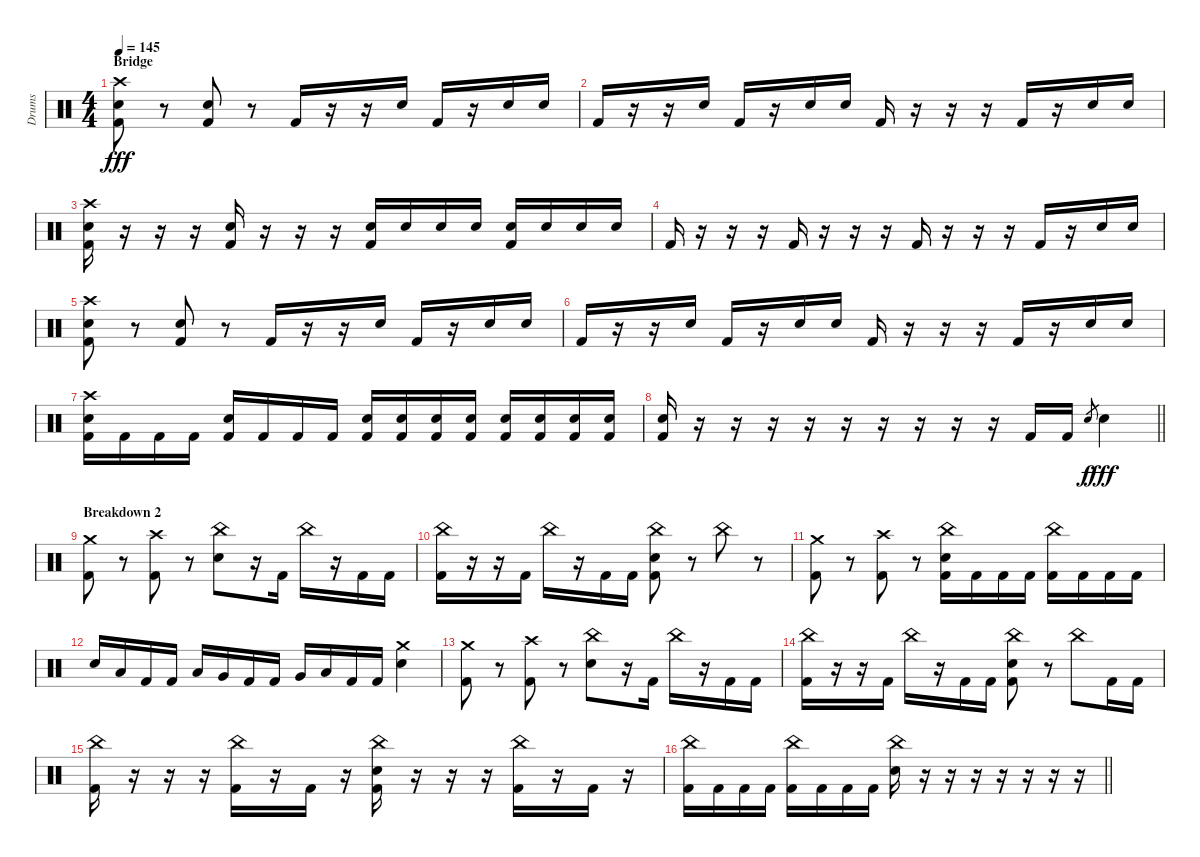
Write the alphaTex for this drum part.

\track ("Drums" "Drums") {instrument percussion}
\staff {score}
\articulation defaults
\ts (4 4)
\section ("" "Bridge")
\tempo 145
\clef neutral
\ks c
("Crash high (hit)" "Electric Snare (hit)" "Kick (hit) 2").8{dy fff} r.8 ("Electric Snare (hit)" "Kick (hit) 2").8 r.8 "Kick (hit) 2".16 r.16 r.16 "Electric Snare (hit)".16 "Kick (hit) 2".16 r.16 "Electric Snare (hit)".16 "Electric Snare (hit)".16 |
"Kick (hit) 2".16 r.16 r.16 "Electric Snare (hit)".16 "Kick (hit) 2".16 r.16 "Electric Snare (hit)".16 "Electric Snare (hit)".16 "Kick (hit) 2".16 r.16 r.16 r.16 "Kick (hit) 2".16 r.16 "Electric Snare (hit)".16 "Electric Snare (hit)".16 |
("Crash high (hit)" "Electric Snare (hit)" "Kick (hit) 2").16 r.16 r.16 r.16 ("Electric Snare (hit)" "Kick (hit) 2").16 r.16 r.16 r.16 ("Electric Snare (hit)" "Kick (hit) 2").16 "Electric Snare (hit)".16 "Electric Snare (hit)".16 "Electric Snare (hit)".16 ("Electric Snare (hit)" "Kick (hit) 2").16 "Electric Snare (hit)".16 "Electric Snare (hit)".16 "Electric Snare (hit)".16 |
"Kick (hit) 2".16 r.16 r.16 r.16 "Kick (hit) 2".16 r.16 r.16 r.16 "Kick (hit) 2".16 r.16 r.16 r.16 "Kick (hit) 2".16 r.16 "Electric Snare (hit)".16 "Electric Snare (hit)".16 |
("Crash high (hit)" "Electric Snare (hit)" "Kick (hit) 2").8 r.8 ("Electric Snare (hit)" "Kick (hit) 2").8 r.8 "Kick (hit) 2".16 r.16 r.16 "Electric Snare (hit)".16 "Kick (hit) 2".16 r.16 "Electric Snare (hit)".16 "Electric Snare (hit)".16 |
"Kick (hit) 2".16 r.16 r.16 "Electric Snare (hit)".16 "Kick (hit) 2".16 r.16 "Electric Snare (hit)".16 "Electric Snare (hit)".16 "Kick (hit) 2".16 r.16 r.16 r.16 "Kick (hit) 2".16 r.16 "Electric Snare (hit)".16 "Electric Snare (hit)".16 |
("Crash high (hit)" "Electric Snare (hit)" "Kick (hit) 2").16 "Kick (hit) 2".16 "Kick (hit) 2".16 "Kick (hit) 2".16 ("Electric Snare (hit)" "Kick (hit) 2").16 "Kick (hit) 2".16 "Kick (hit) 2".16 "Kick (hit) 2".16 ("Electric Snare (hit)" "Kick (hit) 2").16 ("Electric Snare (hit)" "Kick (hit) 2").16 ("Electric Snare (hit)" "Kick (hit) 2").16 ("Electric Snare (hit)" "Kick (hit) 2").16 ("Electric Snare (hit)" "Kick (hit) 2").16 ("Electric Snare (hit)" "Kick (hit) 2").16 ("Electric Snare (hit)" "Kick (hit) 2").16 ("Electric Snare (hit)" "Kick (hit) 2").16 |
\barLineRight lightlight
("Electric Snare (hit)" "Kick (hit) 2").16 r.16 r.16 r.16 r.16 r.16 r.16 r.16 r.16 r.16 "Kick (hit) 2".16 "Kick (hit) 2".16 "Electric Snare (hit)".8{gr dy f} "Electric Snare (hit)".4{dy fff} |
\section ("" "Breakdown 2")
("Crash medium (hit)" "Kick (hit) 2").8 r.8 ("Crash high (hit)" "Kick (hit) 2").8 r.8 ("China (hit)" "Electric Snare (hit)").8 r.16 "Kick (hit) 2".16 "China (hit)".16 r.16 "Kick (hit) 2".16 "Kick (hit) 2".16 |
("China (hit)" "Kick (hit) 2").16 r.16 r.16 "Kick (hit) 2".16 "China (hit)".16 r.16 "Kick (hit) 2".16 "Kick (hit) 2".16 ("China (hit)" "Electric Snare (hit)" "Kick (hit) 2").8 r.8 "China (hit)".8 r.8 |
("Crash medium (hit)" "Kick (hit) 2").8 r.8 ("Crash high (hit)" "Kick (hit) 2").8 r.8 ("China (hit)" "Electric Snare (hit)" "Kick (hit) 2").16 "Kick (hit) 2".16 "Kick (hit) 2".16 "Kick (hit) 2".16 ("China (hit)" "Kick (hit) 2").16 "Kick (hit) 2".16 "Kick (hit) 2".16 "Kick (hit) 2".16 |
"Electric Snare (hit)".16 "Low Tom (hit)".16 "Kick (hit) 2".16 "Kick (hit) 2".16 "Low Tom (hit)".16 "Very Low Tom (hit)".16 "Kick (hit) 2".16 "Kick (hit) 2".16 "Very Low Tom (hit)".16 "Low Floor Tom (hit)".16 "Kick (hit) 2".16 "Kick (hit) 2".16 ("Crash medium (hit)" "Electric Snare (hit)").4 |
("Crash medium (hit)" "Kick (hit) 2").8 r.8 ("Crash high (hit)" "Kick (hit) 2").8 r.8 ("China (hit)" "Electric Snare (hit)").8 r.16 "Kick (hit) 2".16 "China (hit)".16 r.16 "Kick (hit) 2".16 "Kick (hit) 2".16 |
("China (hit)" "Kick (hit) 2").16 r.16 r.16 "Kick (hit) 2".16 "China (hit)".16 r.16 "Kick (hit) 2".16 "Kick (hit) 2".16 ("China (hit)" "Electric Snare (hit)" "Kick (hit) 2").8 r.8 "China (hit)".8 "Kick (hit) 2".16 "Kick (hit) 2".16 |
("China (hit)" "Kick (hit) 2").16 r.16 r.16 r.16 ("China (hit)" "Kick (hit) 2").16 r.16 "Kick (hit) 2".16 r.16 ("China (hit)" "Electric Snare (hit)" "Kick (hit) 2").16 r.16 r.16 r.16 ("China (hit)" "Kick (hit) 2").16 r.16 "Kick (hit) 2".16 r.16 |
\barLineRight lightlight
("China (hit)" "Kick (hit) 2").16 "Kick (hit) 2".16 "Kick (hit) 2".16 "Kick (hit) 2".16 ("China (hit)" "Kick (hit) 2").16 "Kick (hit) 2".16 "Kick (hit) 2".16 "Kick (hit) 2".16 ("China (hit)" "Electric Snare (hit)").16 r.16 r.16 r.16 r.16 r.16 r.16 r.16
